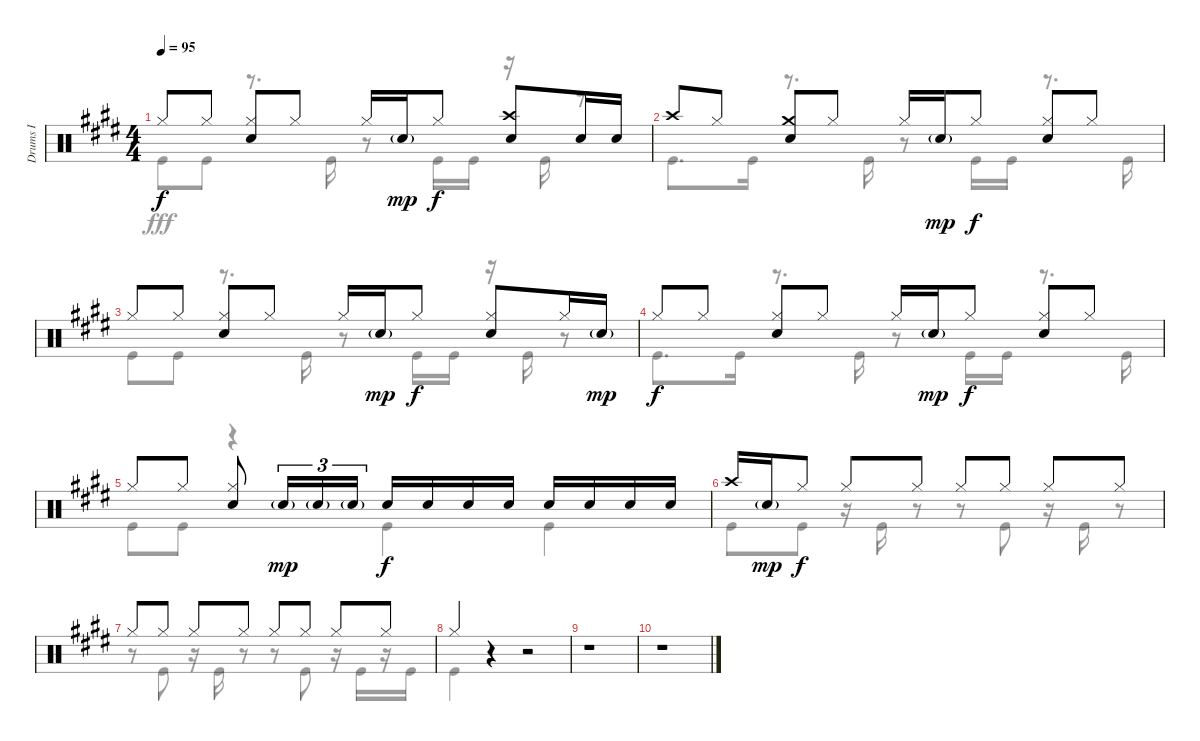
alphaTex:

\track ("Drums I" "Drums I") {instrument percussion}
\staff {score}
\articulation defaults
\voice
\ts (4 4)
\tempo 95
\clef neutral
\ks e "Hi-Hat (closed)".8{dy f} "Hi-Hat (closed)".8
("Hi-Hat (closed)" "Snare (hit) 2").8 "Hi-Hat (closed)".8 "Hi-Hat (closed)".16 "Snare (hit) 2"{g}.16{dy mp} "Hi-Hat (closed)".8{dy f} ("Crash high (hit)" "Snare (hit) 2").8 "Snare (hit) 2".16 "Snare (hit) 2".16 |
"Crash high (hit)".8 "Hi-Hat (closed)".8 ("Crash medium (hit)" "Snare (hit) 2").8 "Hi-Hat (closed)".8 "Hi-Hat (closed)".16 "Snare (hit) 2"{g}.16{dy mp} "Hi-Hat (closed)".8{dy f} ("Hi-Hat (closed)" "Snare (hit) 2").8 "Hi-Hat (closed)".8 |
"Hi-Hat (closed)".8 "Hi-Hat (closed)".8 ("Hi-Hat (closed)" "Snare (hit) 2").8 "Hi-Hat (closed)".8 "Hi-Hat (closed)".16 "Snare (hit) 2"{g}.16{dy mp} "Hi-Hat (closed)".8{dy f} ("Hi-Hat (closed)" "Snare (hit) 2").8 "Hi-Hat (closed)".16 "Snare (hit) 2"{g}.16{dy mp} |
"Hi-Hat (closed)".8{dy f} "Hi-Hat (closed)".8 ("Hi-Hat (closed)" "Snare (hit) 2").8 "Hi-Hat (closed)".8 "Hi-Hat (closed)".16 "Snare (hit) 2"{g}.16{dy mp} "Hi-Hat (closed)".8{dy f} ("Hi-Hat (closed)" "Snare (hit) 2").8 "Hi-Hat (closed)".8 |
"Hi-Hat (closed)".8 "Hi-Hat (closed)".8 ("Hi-Hat (closed)" "Snare (hit) 2").8 "Snare (hit) 2"{g}.16{tu (3 2) dy mp} "Snare (hit) 2"{g}.16{tu (3 2)} "Snare (hit) 2"{g}.16{tu (3 2)} "Snare (hit) 2".16{dy f} "Snare (hit) 2".16 "Snare (hit) 2".16 "Snare (hit) 2".16 "Snare (hit) 2".16 "Snare (hit) 2".16 "Snare (hit) 2".16 "Snare (hit) 2".16 |
"Crash high (hit)".16 "Snare (hit) 2"{g}.16{dy mp} "Hi-Hat (closed)".8{dy f} "Hi-Hat (closed)".8 "Hi-Hat (closed)".8 "Hi-Hat (closed)".8 "Hi-Hat (closed)".8 "Hi-Hat (closed)".8 "Hi-Hat (closed)".8 |
"Hi-Hat (closed)".8 "Hi-Hat (closed)".8 "Hi-Hat (closed)".8 "Hi-Hat (closed)".8 "Hi-Hat (closed)".8 "Hi-Hat (closed)".8 "Hi-Hat (closed)".8 "Hi-Hat (closed)".8 |
"Hi-Hat (closed)".4 r.4 r.2 |
r.1 |
r.1
\voice
\clef neutral
\ottava regular
\simile none
\ks e "Kick (hit)".8{dy fff} "Kick (hit)".8
r.8{d} "Kick (hit)".16 r.8 "Kick (hit)".16 "Kick (hit)".16 r.16 "Kick (hit)".16 r.8 |
"Kick (hit)".8{d} "Kick (hit)".16 r.8{d} "Kick (hit)".16 r.8 "Kick (hit)".16 "Kick (hit)".16 r.8{d} "Kick (hit)".16 |
"Kick (hit)".8 "Kick (hit)".8 r.8{d} "Kick (hit)".16 r.8 "Kick (hit)".16 "Kick (hit)".16 r.16 "Kick (hit)".16 r.8 |
"Kick (hit)".8{d} "Kick (hit)".16 r.8{d} "Kick (hit)".16 r.8 "Kick (hit)".16 "Kick (hit)".16 r.8{d} "Kick (hit)".16 |
"Kick (hit)".8 "Kick (hit)".8 r.4 "Kick (hit)".4 "Kick (hit)".4 |
"Kick (hit)".8 "Kick (hit)".8 r.16 "Kick (hit)".16 r.8 r.8 "Kick (hit)".8 r.16 "Kick (hit)".16 r.8 |
r.8 "Kick (hit)".8 r.16 "Kick (hit)".16 r.8 r.8 "Kick (hit)".8 r.16 "Kick (hit)".16 r.16 "Kick (hit)".16 |
"Kick (hit)".4 r.4 r.2 |
r.1 |
r.1
